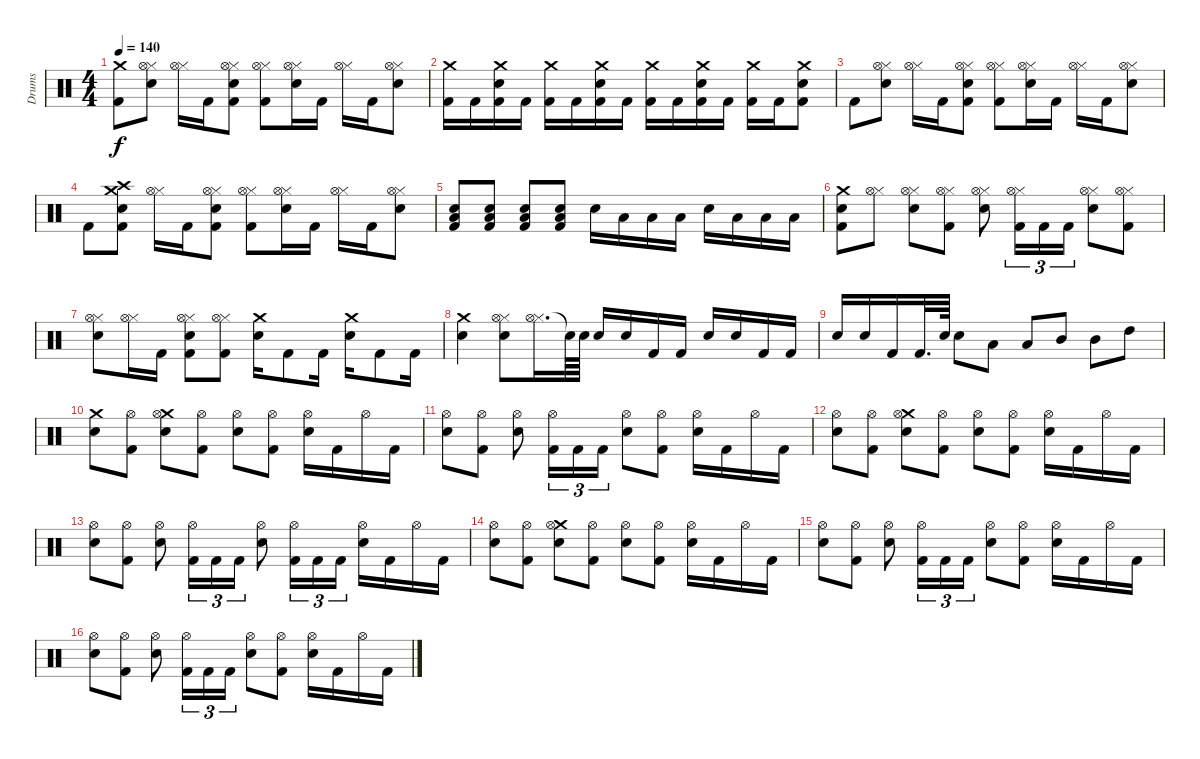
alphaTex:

\track ("Drums" "Drums") {instrument percussion}
\staff {score}
\articulation defaults
\ts (4 4)
\tempo 140
\clef neutral
\ks c
("Crash medium (hit)" "Kick (hit) 2").8{dy f} ("Hi-Hat (closed)" "Hi-Hat (open)" "Electric Snare (hit)").8 ("Hi-Hat (closed)" "Hi-Hat (open)").16 "Kick (hit) 2".16 ("Hi-Hat (closed)" "Hi-Hat (open)" "Electric Snare (hit)" "Kick (hit) 2").8 ("Hi-Hat (closed)" "Hi-Hat (open)" "Kick (hit) 2").8 ("Hi-Hat (closed)" "Hi-Hat (open)" "Electric Snare (hit)").16 "Kick (hit) 2".16 ("Hi-Hat (closed)" "Hi-Hat (open)").16 "Kick (hit) 2".16 ("Hi-Hat (closed)" "Hi-Hat (open)" "Electric Snare (hit)").8 |
("Crash medium (hit)" "Kick (hit) 2").16 "Kick (hit) 2".16 ("Crash medium (hit)" "Electric Snare (hit)" "Kick (hit) 2").16 "Kick (hit) 2".16 ("Crash medium (hit)" "Kick (hit) 2").16 "Kick (hit) 2".16 ("Crash medium (hit)" "Electric Snare (hit)" "Kick (hit) 2").16 "Kick (hit) 2".16 ("Crash medium (hit)" "Kick (hit) 2").16 "Kick (hit) 2".16 ("Crash medium (hit)" "Electric Snare (hit)" "Kick (hit) 2").16 "Kick (hit) 2".16 ("Crash medium (hit)" "Kick (hit) 2").16 "Kick (hit) 2".16 ("Crash medium (hit)" "Electric Snare (hit)" "Kick (hit) 2").8 |
"Kick (hit) 2".8 ("Hi-Hat (closed)" "Hi-Hat (open)" "Electric Snare (hit)").8 ("Hi-Hat (closed)" "Hi-Hat (open)").16 "Kick (hit) 2".16 ("Hi-Hat (closed)" "Hi-Hat (open)" "Electric Snare (hit)" "Kick (hit) 2").8 ("Hi-Hat (closed)" "Hi-Hat (open)" "Kick (hit) 2").8 ("Hi-Hat (closed)" "Hi-Hat (open)" "Electric Snare (hit)").16 "Kick (hit) 2".16 ("Hi-Hat (closed)" "Hi-Hat (open)").16 "Kick (hit) 2".16 ("Hi-Hat (closed)" "Hi-Hat (open)" "Electric Snare (hit)").8 |
"Kick (hit) 2".8 ("Crash medium (hit)" "Crash high (hit)" "Electric Snare (hit)" "Kick (hit) 2").8 ("Hi-Hat (closed)" "Hi-Hat (open)").16 "Kick (hit) 2".16 ("Hi-Hat (closed)" "Hi-Hat (open)" "Electric Snare (hit)" "Kick (hit) 2").8 ("Hi-Hat (closed)" "Hi-Hat (open)" "Kick (hit) 2").8 ("Hi-Hat (closed)" "Hi-Hat (open)" "Electric Snare (hit)").16 "Kick (hit) 2".16 ("Hi-Hat (closed)" "Hi-Hat (open)").16 "Kick (hit) 2".16 ("Hi-Hat (closed)" "Hi-Hat (open)" "Electric Snare (hit)").8 |
("Low Floor Tom (hit)" "Electric Snare (hit)" "Kick (hit) 2").8 ("Low Floor Tom (hit)" "Electric Snare (hit)" "Kick (hit) 2").8 ("Low Floor Tom (hit)" "Electric Snare (hit)" "Kick (hit) 2").8 ("Low Floor Tom (hit)" "Electric Snare (hit)" "Kick (hit) 2").8 "Electric Snare (hit)".16 "Low Tom (hit)".16 "Low Tom (hit)".16 "Low Tom (hit)".16 "Electric Snare (hit)".16 "Low Tom (hit)".16 "Low Tom (hit)".16 "Low Tom (hit)".16 |
("Crash medium (hit)" "Electric Snare (hit)" "Kick (hit) 2").8 ("Hi-Hat (closed)" "Hi-Hat (open)").8 ("Hi-Hat (closed)" "Hi-Hat (open)" "Electric Snare (hit)").8 ("Hi-Hat (closed)" "Hi-Hat (open)" "Kick (hit) 2").8 ("Hi-Hat (closed)" "Hi-Hat (open)" "Electric Snare (hit)").8 ("Hi-Hat (closed)" "Hi-Hat (open)" "Kick (hit) 2").16{tu (3 2)} "Kick (hit) 2".16{tu (3 2)} "Kick (hit) 2".16{tu (3 2)} ("Hi-Hat (closed)" "Hi-Hat (open)" "Electric Snare (hit)").8 ("Hi-Hat (closed)" "Hi-Hat (open)" "Kick (hit) 2").8 |
("Hi-Hat (closed)" "Hi-Hat (open)" "Electric Snare (hit)").8 ("Hi-Hat (closed)" "Hi-Hat (open)").16 "Kick (hit) 2".16 ("Hi-Hat (closed)" "Hi-Hat (open)" "Electric Snare (hit)" "Kick (hit) 2").8 ("Hi-Hat (closed)" "Hi-Hat (open)" "Kick (hit) 2").8 ("Crash medium (hit)" "Electric Snare (hit)").16 "Kick (hit) 2".8 "Kick (hit) 2".16 ("Crash medium (hit)" "Electric Snare (hit)").16 "Kick (hit) 2".8 "Kick (hit) 2".16 |
("Crash medium (hit)" "Electric Snare (hit)").4 ("Hi-Hat (closed)" "Hi-Hat (open)" "Electric Snare (hit)").8 ("Hi-Hat (closed)" "Hi-Hat (open)").16{d} "Snare (hit)"{t}.64 "Electric Snare (hit)".64 "Electric Snare (hit)".16 "Electric Snare (hit)".16 "Kick (hit) 2".16 "Kick (hit) 2".16 "Electric Snare (hit)".16 "Electric Snare (hit)".16 "Kick (hit) 2".16 "Kick (hit) 2".16 |
"Electric Snare (hit)".16 "Electric Snare (hit)".16 "Kick (hit) 2".16 "Kick (hit) 2".32{d} "Electric Snare (hit)".64 "Electric Snare (hit)".8 "Low Tom (hit)".8 "Low Tom (hit)".8 "Mid Tom (hit)".8 "Mid Tom (hit)".8 "High Tom (hit)".8 |
("Crash medium (hit)" "Electric Snare (hit)").8 ("Hi-Hat (open)" "Kick (hit) 2").8 ("Crash medium (hit)" "Hi-Hat (open)" "Electric Snare (hit)").8 ("Hi-Hat (open)" "Kick (hit) 2").8 ("Hi-Hat (open)" "Electric Snare (hit)").8 ("Hi-Hat (open)" "Kick (hit) 2").8 ("Hi-Hat (open)" "Electric Snare (hit)").16 "Kick (hit) 2".16 "Hi-Hat (open)".16 "Kick (hit) 2".16 |
("Hi-Hat (open)" "Electric Snare (hit)").8 ("Hi-Hat (open)" "Kick (hit) 2").8 ("Hi-Hat (open)" "Electric Snare (hit)").8 ("Hi-Hat (open)" "Kick (hit) 2").16{tu (3 2)} "Kick (hit) 2".16{tu (3 2)} "Kick (hit) 2".16{tu (3 2)} ("Hi-Hat (open)" "Electric Snare (hit)").8 ("Hi-Hat (open)" "Kick (hit) 2").8 ("Hi-Hat (open)" "Electric Snare (hit)").16 "Kick (hit) 2".16 "Hi-Hat (open)".16 "Kick (hit) 2".16 |
("Hi-Hat (open)" "Electric Snare (hit)").8 ("Hi-Hat (open)" "Kick (hit) 2").8 ("Crash medium (hit)" "Hi-Hat (open)" "Electric Snare (hit)").8 ("Hi-Hat (open)" "Kick (hit) 2").8 ("Hi-Hat (open)" "Electric Snare (hit)").8 ("Hi-Hat (open)" "Kick (hit) 2").8 ("Hi-Hat (open)" "Electric Snare (hit)").16 "Kick (hit) 2".16 "Hi-Hat (open)".16 "Kick (hit) 2".16 |
("Hi-Hat (open)" "Electric Snare (hit)").8 ("Hi-Hat (open)" "Kick (hit) 2").8 ("Hi-Hat (open)" "Electric Snare (hit)").8 ("Hi-Hat (open)" "Kick (hit) 2").16{tu (3 2)} "Kick (hit) 2".16{tu (3 2)} "Kick (hit) 2".16{tu (3 2)} ("Hi-Hat (open)" "Electric Snare (hit)").8 ("Hi-Hat (open)" "Kick (hit) 2").16{tu (3 2)} "Kick (hit) 2".16{tu (3 2)} "Kick (hit) 2".16{tu (3 2)} ("Hi-Hat (open)" "Electric Snare (hit)").16 "Kick (hit) 2".16 "Hi-Hat (open)".16 "Kick (hit) 2".16 |
("Hi-Hat (open)" "Electric Snare (hit)").8 ("Hi-Hat (open)" "Kick (hit) 2").8 ("Crash medium (hit)" "Hi-Hat (open)" "Electric Snare (hit)").8 ("Hi-Hat (open)" "Kick (hit) 2").8 ("Hi-Hat (open)" "Electric Snare (hit)").8 ("Hi-Hat (open)" "Kick (hit) 2").8 ("Hi-Hat (open)" "Electric Snare (hit)").16 "Kick (hit) 2".16 "Hi-Hat (open)".16 "Kick (hit) 2".16 |
("Hi-Hat (open)" "Electric Snare (hit)").8 ("Hi-Hat (open)" "Kick (hit) 2").8 ("Hi-Hat (open)" "Electric Snare (hit)").8 ("Hi-Hat (open)" "Kick (hit) 2").16{tu (3 2)} "Kick (hit) 2".16{tu (3 2)} "Kick (hit) 2".16{tu (3 2)} ("Hi-Hat (open)" "Electric Snare (hit)").8 ("Hi-Hat (open)" "Kick (hit) 2").8 ("Hi-Hat (open)" "Electric Snare (hit)").16 "Kick (hit) 2".16 "Hi-Hat (open)".16 "Kick (hit) 2".16 |
("Hi-Hat (open)" "Electric Snare (hit)").8 ("Hi-Hat (open)" "Kick (hit) 2").8 ("Hi-Hat (open)" "Electric Snare (hit)").8 ("Hi-Hat (open)" "Kick (hit) 2").16{tu (3 2)} "Kick (hit) 2".16{tu (3 2)} "Kick (hit) 2".16{tu (3 2)} ("Hi-Hat (open)" "Electric Snare (hit)").8 ("Hi-Hat (open)" "Kick (hit) 2").8 ("Hi-Hat (open)" "Electric Snare (hit)").16 "Kick (hit) 2".16 "Hi-Hat (open)".16 "Kick (hit) 2".16
